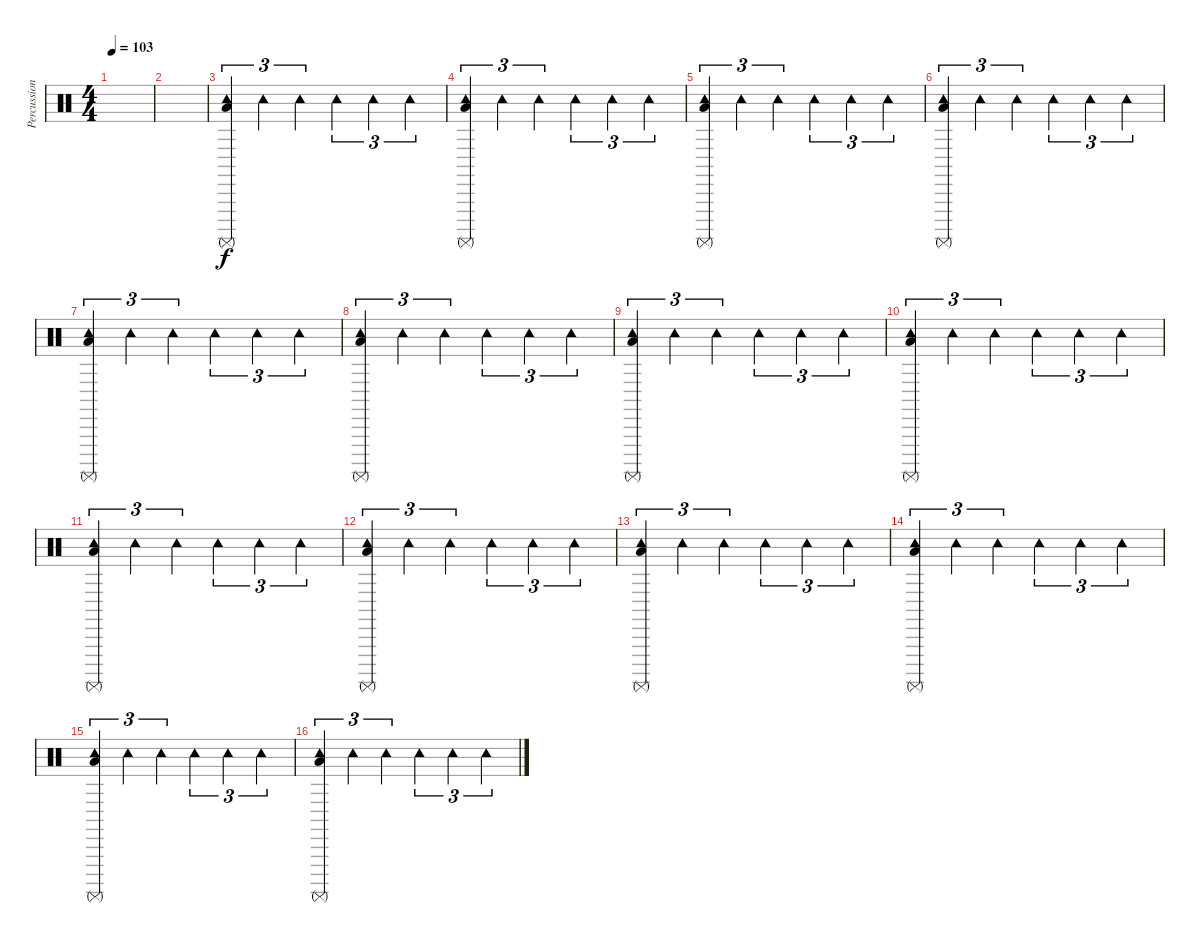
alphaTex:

\track ("Percussion" "Percussion") {instrument percussion}
\staff {score}
\articulation defaults
\ts (4 4)
\tempo 103
\clef neutral
\ks c
|
|
("Tambourine (hit)" "Low Floor Tom (hit)" "Surdo (mute)").4{tu (3 2)} "Tambourine (hit)".4{tu (3 2)} "Tambourine (hit)".4{tu (3 2)} "Tambourine (hit)".4{tu (3 2)} "Tambourine (hit)".4{tu (3 2)} "Tambourine (hit)".4{tu (3 2)} |
("Tambourine (hit)" "Low Floor Tom (hit)" "Surdo (mute)").4{tu (3 2)} "Tambourine (hit)".4{tu (3 2)} "Tambourine (hit)".4{tu (3 2)} "Tambourine (hit)".4{tu (3 2)} "Tambourine (hit)".4{tu (3 2)} "Tambourine (hit)".4{tu (3 2)} |
("Tambourine (hit)" "Low Floor Tom (hit)" "Surdo (mute)").4{tu (3 2)} "Tambourine (hit)".4{tu (3 2)} "Tambourine (hit)".4{tu (3 2)} "Tambourine (hit)".4{tu (3 2)} "Tambourine (hit)".4{tu (3 2)} "Tambourine (hit)".4{tu (3 2)} |
("Tambourine (hit)" "Low Floor Tom (hit)" "Surdo (mute)").4{tu (3 2)} "Tambourine (hit)".4{tu (3 2)} "Tambourine (hit)".4{tu (3 2)} "Tambourine (hit)".4{tu (3 2)} "Tambourine (hit)".4{tu (3 2)} "Tambourine (hit)".4{tu (3 2)} |
("Tambourine (hit)" "Low Floor Tom (hit)" "Surdo (mute)").4{tu (3 2)} "Tambourine (hit)".4{tu (3 2)} "Tambourine (hit)".4{tu (3 2)} "Tambourine (hit)".4{tu (3 2)} "Tambourine (hit)".4{tu (3 2)} "Tambourine (hit)".4{tu (3 2)} |
("Tambourine (hit)" "Low Floor Tom (hit)" "Surdo (mute)").4{tu (3 2)} "Tambourine (hit)".4{tu (3 2)} "Tambourine (hit)".4{tu (3 2)} "Tambourine (hit)".4{tu (3 2)} "Tambourine (hit)".4{tu (3 2)} "Tambourine (hit)".4{tu (3 2)} |
("Tambourine (hit)" "Low Floor Tom (hit)" "Surdo (mute)").4{tu (3 2)} "Tambourine (hit)".4{tu (3 2)} "Tambourine (hit)".4{tu (3 2)} "Tambourine (hit)".4{tu (3 2)} "Tambourine (hit)".4{tu (3 2)} "Tambourine (hit)".4{tu (3 2)} |
("Tambourine (hit)" "Low Floor Tom (hit)" "Surdo (mute)").4{tu (3 2)} "Tambourine (hit)".4{tu (3 2)} "Tambourine (hit)".4{tu (3 2)} "Tambourine (hit)".4{tu (3 2)} "Tambourine (hit)".4{tu (3 2)} "Tambourine (hit)".4{tu (3 2)} |
("Tambourine (hit)" "Low Floor Tom (hit)" "Surdo (mute)").4{tu (3 2)} "Tambourine (hit)".4{tu (3 2)} "Tambourine (hit)".4{tu (3 2)} "Tambourine (hit)".4{tu (3 2)} "Tambourine (hit)".4{tu (3 2)} "Tambourine (hit)".4{tu (3 2)} |
("Tambourine (hit)" "Low Floor Tom (hit)" "Surdo (mute)").4{tu (3 2)} "Tambourine (hit)".4{tu (3 2)} "Tambourine (hit)".4{tu (3 2)} "Tambourine (hit)".4{tu (3 2)} "Tambourine (hit)".4{tu (3 2)} "Tambourine (hit)".4{tu (3 2)} |
("Tambourine (hit)" "Low Floor Tom (hit)" "Surdo (mute)").4{tu (3 2)} "Tambourine (hit)".4{tu (3 2)} "Tambourine (hit)".4{tu (3 2)} "Tambourine (hit)".4{tu (3 2)} "Tambourine (hit)".4{tu (3 2)} "Tambourine (hit)".4{tu (3 2)} |
("Tambourine (hit)" "Low Floor Tom (hit)" "Surdo (mute)").4{tu (3 2)} "Tambourine (hit)".4{tu (3 2)} "Tambourine (hit)".4{tu (3 2)} "Tambourine (hit)".4{tu (3 2)} "Tambourine (hit)".4{tu (3 2)} "Tambourine (hit)".4{tu (3 2)} |
("Tambourine (hit)" "Low Floor Tom (hit)" "Surdo (mute)").4{tu (3 2)} "Tambourine (hit)".4{tu (3 2)} "Tambourine (hit)".4{tu (3 2)} "Tambourine (hit)".4{tu (3 2)} "Tambourine (hit)".4{tu (3 2)} "Tambourine (hit)".4{tu (3 2)} |
("Tambourine (hit)" "Low Floor Tom (hit)" "Surdo (mute)").4{tu (3 2)} "Tambourine (hit)".4{tu (3 2)} "Tambourine (hit)".4{tu (3 2)} "Tambourine (hit)".4{tu (3 2)} "Tambourine (hit)".4{tu (3 2)} "Tambourine (hit)".4{tu (3 2)}
